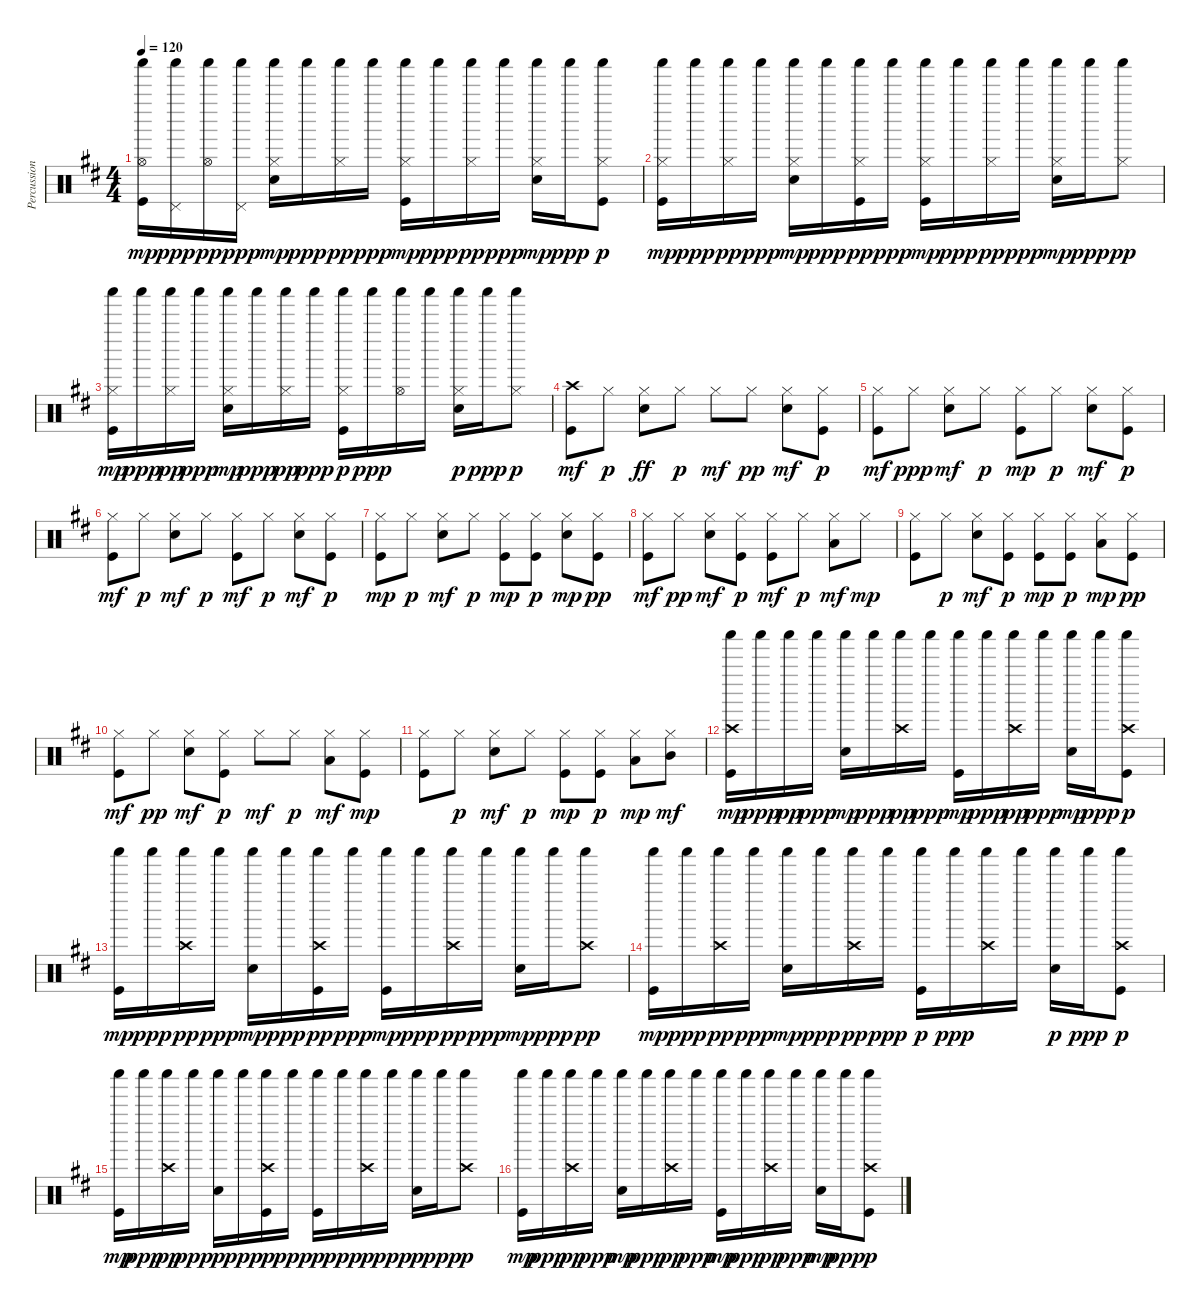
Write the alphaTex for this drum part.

\track ("Percussion" "Percussion") {instrument percussion}
\staff {score}
\articulation defaults
\ts (4 4)
\tempo 120
\clef neutral
\ks d
("Kick (hit)" "Hi-Hat (open)" "Shaker (hit)").16{dy mp} ("Pedal Hi-Hat (hit)" "Shaker (hit)").16{dy ppp} ("Hi-Hat (open)" "Shaker (hit)").16{dy pp} ("Pedal Hi-Hat (hit)" "Shaker (hit)").16{dy ppp} ("Electric Snare (hit)" "Hi-Hat (closed)" "Shaker (hit)").16{dy mp} "Shaker (hit)".16{dy ppp} ("Hi-Hat (closed)" "Shaker (hit)").16{dy pp} "Shaker (hit)".16{dy ppp} ("Kick (hit)" "Hi-Hat (closed)" "Shaker (hit)").16{dy mp} "Shaker (hit)".16{dy ppp} ("Hi-Hat (closed)" "Shaker (hit)").16{dy pp} "Shaker (hit)".16{dy ppp} ("Electric Snare (hit)" "Hi-Hat (closed)" "Shaker (hit)").16{dy mp} "Shaker (hit)".16{dy ppp} ("Kick (hit)" "Hi-Hat (closed)" "Shaker (hit)").8{dy p} |
("Kick (hit)" "Hi-Hat (closed)" "Shaker (hit)").16{dy mp} "Shaker (hit)".16{dy ppp} ("Hi-Hat (closed)" "Shaker (hit)").16{dy pp} "Shaker (hit)".16{dy ppp} ("Electric Snare (hit)" "Hi-Hat (closed)" "Shaker (hit)").16{dy mp} "Shaker (hit)".16{dy ppp} ("Kick (hit)" "Hi-Hat (closed)" "Shaker (hit)").16{dy pp} "Shaker (hit)".16{dy ppp} ("Kick (hit)" "Hi-Hat (closed)" "Shaker (hit)").16{dy mp} "Shaker (hit)".16{dy ppp} ("Hi-Hat (closed)" "Shaker (hit)").16{dy pp} "Shaker (hit)".16{dy ppp} ("Electric Snare (hit)" "Hi-Hat (closed)" "Shaker (hit)").16{dy mp} "Shaker (hit)".16{dy ppp} ("Hi-Hat (closed)" "Shaker (hit)").8{dy pp} |
("Kick (hit)" "Hi-Hat (closed)" "Shaker (hit)").16{dy mp} "Shaker (hit)".16{dy ppp} ("Hi-Hat (closed)" "Shaker (hit)").16{dy pp} "Shaker (hit)".16{dy ppp} ("Electric Snare (hit)" "Hi-Hat (closed)" "Shaker (hit)").16{dy mp} "Shaker (hit)".16{dy ppp} ("Hi-Hat (closed)" "Shaker (hit)").16{dy pp} "Shaker (hit)".16{dy ppp} ("Kick (hit)" "Hi-Hat (closed)" "Shaker (hit)").16{dy p} "Shaker (hit)".16{dy ppp} ("Hi-Hat (open)" "Shaker (hit)").16 "Shaker (hit)".16 ("Electric Snare (hit)" "Hi-Hat (closed)" "Shaker (hit)").16{dy p} "Shaker (hit)".16{dy ppp} ("Hi-Hat (closed)" "Shaker (hit)").8{dy p} |
("Kick (hit)" "Crash high (hit)").8{dy mf} "Hi-Hat (closed)".8{dy p} ("Electric Snare (hit)" "Hi-Hat (closed)").8{dy ff} "Hi-Hat (closed)".8{dy p} "Hi-Hat (closed)".8{dy mf} "Hi-Hat (closed)".8{dy pp} ("Electric Snare (hit)" "Hi-Hat (closed)").8{dy mf} ("Kick (hit)" "Hi-Hat (closed)").8{dy p} |
("Kick (hit)" "Hi-Hat (closed)").8{dy mf} "Hi-Hat (closed)".8{dy ppp} ("Electric Snare (hit)" "Hi-Hat (closed)").8{dy mf} "Hi-Hat (closed)".8{dy p} ("Kick (hit)" "Hi-Hat (closed)").8{dy mp} "Hi-Hat (closed)".8{dy p} ("Electric Snare (hit)" "Hi-Hat (closed)").8{dy mf} ("Kick (hit)" "Hi-Hat (closed)").8{dy p} |
("Kick (hit)" "Hi-Hat (closed)").8{dy mf} "Hi-Hat (closed)".8{dy p} ("Electric Snare (hit)" "Hi-Hat (closed)").8{dy mf} "Hi-Hat (closed)".8{dy p} ("Kick (hit)" "Hi-Hat (closed)").8{dy mf} "Hi-Hat (closed)".8{dy p} ("Electric Snare (hit)" "Hi-Hat (closed)").8{dy mf} ("Kick (hit)" "Hi-Hat (closed)").8{dy p} |
("Kick (hit)" "Hi-Hat (closed)").8{dy mp} "Hi-Hat (closed)".8{dy p} ("Electric Snare (hit)" "Hi-Hat (closed)").8{dy mf} "Hi-Hat (closed)".8{dy p} ("Kick (hit)" "Hi-Hat (closed)").8{dy mp} ("Kick (hit)" "Hi-Hat (closed)").8{dy p} ("Electric Snare (hit)" "Hi-Hat (closed)").8{dy mp} ("Kick (hit)" "Hi-Hat (closed)").8{dy pp} |
("Kick (hit)" "Hi-Hat (closed)").8{dy mf} "Hi-Hat (closed)".8{dy pp} ("Electric Snare (hit)" "Hi-Hat (closed)").8{dy mf} ("Kick (hit)" "Hi-Hat (closed)").8{dy p} ("Kick (hit)" "Hi-Hat (closed)").8{dy mf} "Hi-Hat (closed)".8{dy p} ("Low Floor Tom (hit)" "Hi-Hat (closed)").8{dy mf} "Hi-Hat (closed)".8{dy mp} |
("Kick (hit)" "Hi-Hat (closed)").8 "Hi-Hat (closed)".8{dy p} ("Electric Snare (hit)" "Hi-Hat (closed)").8{dy mf} ("Kick (hit)" "Hi-Hat (closed)").8{dy p} ("Kick (hit)" "Hi-Hat (closed)").8{dy mp} ("Kick (hit)" "Hi-Hat (closed)").8{dy p} ("Low Floor Tom (hit)" "Hi-Hat (closed)").8{dy mp} ("Kick (hit)" "Hi-Hat (closed)").8{dy pp} |
("Kick (hit)" "Hi-Hat (closed)").8{dy mf} "Hi-Hat (closed)".8{dy pp} ("Electric Snare (hit)" "Hi-Hat (closed)").8{dy mf} ("Kick (hit)" "Hi-Hat (closed)").8{dy p} "Hi-Hat (closed)".8{dy mf} "Hi-Hat (closed)".8{dy p} ("Low Floor Tom (hit)" "Hi-Hat (closed)").8{dy mf} ("Kick (hit)" "Hi-Hat (closed)").8{dy mp} |
("Kick (hit)" "Hi-Hat (closed)").8 "Hi-Hat (closed)".8{dy p} ("Electric Snare (hit)" "Hi-Hat (closed)").8{dy mf} "Hi-Hat (closed)".8{dy p} ("Kick (hit)" "Hi-Hat (closed)").8{dy mp} ("Kick (hit)" "Hi-Hat (closed)").8{dy p} ("Low Floor Tom (hit)" "Hi-Hat (closed)").8{dy mp} ("Hi-Hat (closed)" "Mid Tom (hit)").8{dy mf} |
("Kick (hit)" "Crash high (hit)" "Shaker (hit)").16{dy mp} "Shaker (hit)".16{dy ppp} "Shaker (hit)".16{dy pp} "Shaker (hit)".16{dy ppp} ("Electric Snare (hit)" "Shaker (hit)").16{dy mp} "Shaker (hit)".16{dy ppp} ("Crash high (hit)" "Shaker (hit)").16{dy pp} "Shaker (hit)".16{dy ppp} ("Kick (hit)" "Shaker (hit)").16{dy mp} "Shaker (hit)".16{dy ppp} ("Crash high (hit)" "Shaker (hit)").16{dy pp} "Shaker (hit)".16{dy ppp} ("Electric Snare (hit)" "Shaker (hit)").16{dy mp} "Shaker (hit)".16{dy ppp} ("Kick (hit)" "Crash high (hit)" "Shaker (hit)").8{dy p} |
("Kick (hit)" "Shaker (hit)").16{dy mp} "Shaker (hit)".16{dy ppp} ("Crash high (hit)" "Shaker (hit)").16{dy pp} "Shaker (hit)".16{dy ppp} ("Electric Snare (hit)" "Shaker (hit)").16{dy mp} "Shaker (hit)".16{dy ppp} ("Kick (hit)" "Crash high (hit)" "Shaker (hit)").16{dy pp} "Shaker (hit)".16{dy ppp} ("Kick (hit)" "Shaker (hit)").16{dy mp} "Shaker (hit)".16{dy ppp} ("Crash high (hit)" "Shaker (hit)").16{dy pp} "Shaker (hit)".16{dy ppp} ("Electric Snare (hit)" "Shaker (hit)").16{dy mp} "Shaker (hit)".16{dy ppp} ("Crash high (hit)" "Shaker (hit)").8{dy pp} |
("Kick (hit)" "Shaker (hit)").16{dy mp} "Shaker (hit)".16{dy ppp} ("Crash high (hit)" "Shaker (hit)").16{dy pp} "Shaker (hit)".16{dy ppp} ("Electric Snare (hit)" "Shaker (hit)").16{dy mp} "Shaker (hit)".16{dy ppp} ("Crash high (hit)" "Shaker (hit)").16{dy pp} "Shaker (hit)".16{dy ppp} ("Kick (hit)" "Shaker (hit)").16{dy p} "Shaker (hit)".16{dy ppp} ("Crash high (hit)" "Shaker (hit)").16 "Shaker (hit)".16 ("Electric Snare (hit)" "Shaker (hit)").16{dy p} "Shaker (hit)".16{dy ppp} ("Kick (hit)" "Crash high (hit)" "Shaker (hit)").8{dy p} |
("Kick (hit)" "Shaker (hit)").16{dy mp} "Shaker (hit)".16{dy ppp} ("Crash high (hit)" "Shaker (hit)").16{dy pp} "Shaker (hit)".16{dy ppp} ("Electric Snare (hit)" "Shaker (hit)").16{dy p} "Shaker (hit)".16{dy ppp} ("Kick (hit)" "Crash high (hit)" "Shaker (hit)").16{dy p} "Shaker (hit)".16{dy ppp} ("Kick (hit)" "Shaker (hit)").16{dy p} "Shaker (hit)".16{dy ppp} ("Crash high (hit)" "Shaker (hit)").16{dy p} "Shaker (hit)".16{dy ppp} ("Electric Snare (hit)" "Shaker (hit)").16{dy p} "Shaker (hit)".16{dy ppp} ("Crash high (hit)" "Shaker (hit)").8{dy p} |
("Kick (hit)" "Shaker (hit)").16{dy mp} "Shaker (hit)".16{dy ppp} ("Crash high (hit)" "Shaker (hit)").16{dy pp} "Shaker (hit)".16{dy ppp} ("Electric Snare (hit)" "Shaker (hit)").16{dy mp} "Shaker (hit)".16{dy ppp} ("Crash high (hit)" "Shaker (hit)").16{dy pp} "Shaker (hit)".16{dy ppp} ("Kick (hit)" "Shaker (hit)").16{dy mp} "Shaker (hit)".16{dy ppp} ("Crash high (hit)" "Shaker (hit)").16{dy pp} "Shaker (hit)".16{dy ppp} ("Electric Snare (hit)" "Shaker (hit)").16{dy mp} "Shaker (hit)".16{dy ppp} ("Kick (hit)" "Crash high (hit)" "Shaker (hit)").8{dy p}
